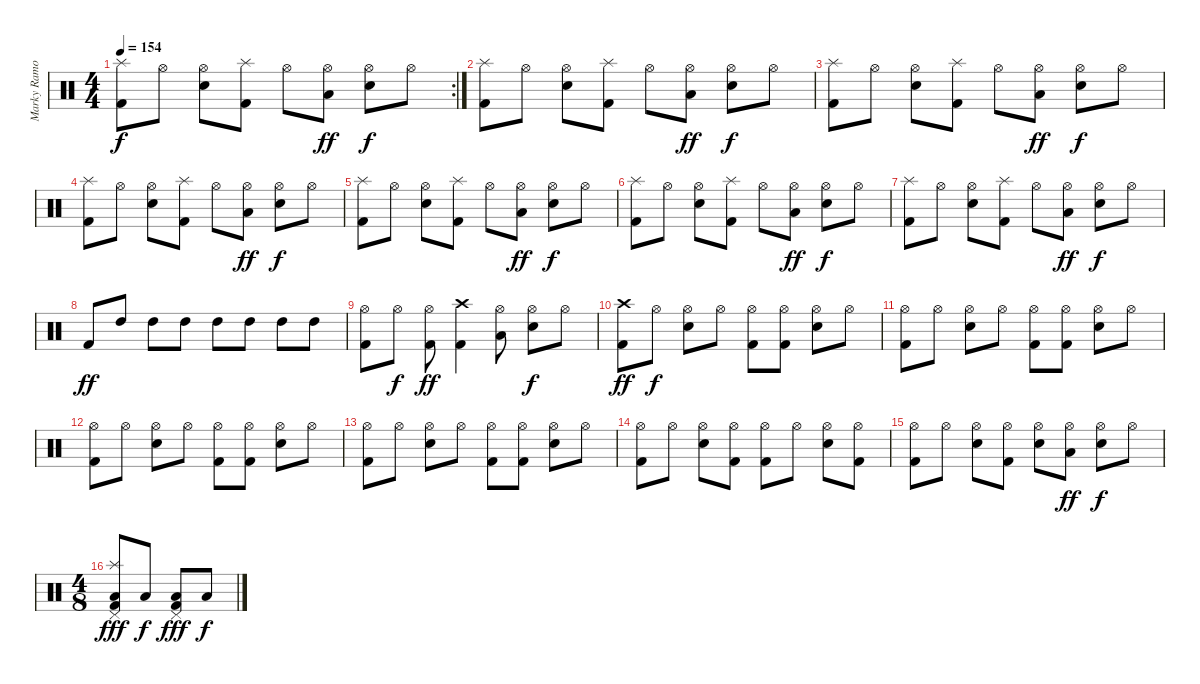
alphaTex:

\track ("Marky Ramone - Drums" "Marky Ramo") {instrument percussion}
\staff {score}
\articulation defaults
\rc 2
\ts (4 4)
\tempo 154
\clef neutral
\ks c
("Kick (hit) 2" "Splash (hit)").8{dy f} "Hi-Hat (open)".8 ("Snare (hit) 2" "Hi-Hat (open)").8 ("Kick (hit) 2" "Splash (hit)").8 "Hi-Hat (open)".8 ("Low Floor Tom (hit)" "Hi-Hat (open)").8{dy ff} ("Snare (hit) 2" "Hi-Hat (open)").8{dy f} "Hi-Hat (open)".8 |
("Kick (hit) 2" "Splash (hit)").8 "Hi-Hat (open)".8 ("Snare (hit) 2" "Hi-Hat (open)").8 ("Kick (hit) 2" "Splash (hit)").8 "Hi-Hat (open)".8 ("Low Floor Tom (hit)" "Hi-Hat (open)").8{dy ff} ("Snare (hit) 2" "Hi-Hat (open)").8{dy f} "Hi-Hat (open)".8 |
("Kick (hit) 2" "Splash (hit)").8 "Hi-Hat (open)".8 ("Snare (hit) 2" "Hi-Hat (open)").8 ("Kick (hit) 2" "Splash (hit)").8 "Hi-Hat (open)".8 ("Low Floor Tom (hit)" "Hi-Hat (open)").8{dy ff} ("Snare (hit) 2" "Hi-Hat (open)").8{dy f} "Hi-Hat (open)".8 |
("Kick (hit) 2" "Splash (hit)").8 "Hi-Hat (open)".8 ("Snare (hit) 2" "Hi-Hat (open)").8 ("Kick (hit) 2" "Splash (hit)").8 "Hi-Hat (open)".8 ("Low Floor Tom (hit)" "Hi-Hat (open)").8{dy ff} ("Snare (hit) 2" "Hi-Hat (open)").8{dy f} "Hi-Hat (open)".8 |
("Kick (hit) 2" "Splash (hit)").8 "Hi-Hat (open)".8 ("Snare (hit) 2" "Hi-Hat (open)").8 ("Kick (hit) 2" "Splash (hit)").8 "Hi-Hat (open)".8 ("Low Floor Tom (hit)" "Hi-Hat (open)").8{dy ff} ("Snare (hit) 2" "Hi-Hat (open)").8{dy f} "Hi-Hat (open)".8 |
("Kick (hit) 2" "Splash (hit)").8 "Hi-Hat (open)".8 ("Snare (hit) 2" "Hi-Hat (open)").8 ("Kick (hit) 2" "Splash (hit)").8 "Hi-Hat (open)".8 ("Low Floor Tom (hit)" "Hi-Hat (open)").8{dy ff} ("Snare (hit) 2" "Hi-Hat (open)").8{dy f} "Hi-Hat (open)".8 |
("Kick (hit) 2" "Splash (hit)").8 "Hi-Hat (open)".8 ("Snare (hit) 2" "Hi-Hat (open)").8 ("Kick (hit) 2" "Splash (hit)").8 "Hi-Hat (open)".8 ("Low Floor Tom (hit)" "Hi-Hat (open)").8{dy ff} ("Snare (hit) 2" "Hi-Hat (open)").8{dy f} "Hi-Hat (open)".8 |
"Kick (hit) 2".8{dy ff} "High Tom (hit)".8 "High Tom (hit)".8 "High Tom (hit)".8 "High Tom (hit)".8 "High Tom (hit)".8 "High Tom (hit)".8 "High Tom (hit)".8 |
("Kick (hit) 2" "Hi-Hat (open)").8 "Hi-Hat (open)".8{dy f} ("Kick (hit) 2" "Hi-Hat (open)").8{dy ff} ("Kick (hit) 2" "Crash high (hit)").4 ("Low Floor Tom (hit)" "Hi-Hat (open)").8 ("Snare (hit) 2" "Hi-Hat (open)").8{dy f} "Hi-Hat (open)".8 |
("Kick (hit) 2" "Crash high (hit)").8{dy ff} "Hi-Hat (open)".8{dy f} ("Snare (hit) 2" "Hi-Hat (open)").8 "Hi-Hat (open)".8 ("Kick (hit) 2" "Hi-Hat (open)").8 ("Kick (hit) 2" "Hi-Hat (open)").8 ("Snare (hit) 2" "Hi-Hat (open)").8 "Hi-Hat (open)".8 |
("Kick (hit) 2" "Hi-Hat (open)").8 "Hi-Hat (open)".8 ("Snare (hit) 2" "Hi-Hat (open)").8 "Hi-Hat (open)".8 ("Kick (hit) 2" "Hi-Hat (open)").8 ("Kick (hit) 2" "Hi-Hat (open)").8 ("Snare (hit) 2" "Hi-Hat (open)").8 "Hi-Hat (open)".8 |
("Kick (hit) 2" "Hi-Hat (open)").8 "Hi-Hat (open)".8 ("Snare (hit) 2" "Hi-Hat (open)").8 "Hi-Hat (open)".8 ("Kick (hit) 2" "Hi-Hat (open)").8 ("Kick (hit) 2" "Hi-Hat (open)").8 ("Snare (hit) 2" "Hi-Hat (open)").8 "Hi-Hat (open)".8 |
("Kick (hit) 2" "Hi-Hat (open)").8 "Hi-Hat (open)".8 ("Snare (hit) 2" "Hi-Hat (open)").8 "Hi-Hat (open)".8 ("Kick (hit) 2" "Hi-Hat (open)").8 ("Kick (hit) 2" "Hi-Hat (open)").8 ("Snare (hit) 2" "Hi-Hat (open)").8 "Hi-Hat (open)".8 |
("Kick (hit) 2" "Hi-Hat (open)").8 "Hi-Hat (open)".8 ("Snare (hit) 2" "Hi-Hat (open)").8 ("Kick (hit) 2" "Hi-Hat (open)").8 ("Kick (hit) 2" "Hi-Hat (open)").8 "Hi-Hat (open)".8 ("Snare (hit) 2" "Hi-Hat (open)").8 ("Kick (hit) 2" "Hi-Hat (open)").8 |
("Kick (hit) 2" "Hi-Hat (open)").8 "Hi-Hat (open)".8 ("Snare (hit) 2" "Hi-Hat (open)").8 ("Kick (hit) 2" "Hi-Hat (open)").8 ("Snare (hit) 2" "Hi-Hat (open)").8 ("Low Floor Tom (hit)" "Hi-Hat (open)").8{dy ff} ("Snare (hit) 2" "Hi-Hat (open)").8{dy f} "Hi-Hat (open)".8 |
\ts (4 8)
("Low Floor Tom (hit)" "Splash (hit)" "Pedal Hi-Hat (hit)" "Kick (hit) 2").8{dy fff} "Low Floor Tom (hit)".8{dy f} ("Low Floor Tom (hit)" "Pedal Hi-Hat (hit)" "Kick (hit) 2").8{dy fff} "Low Floor Tom (hit)".8{dy f}
